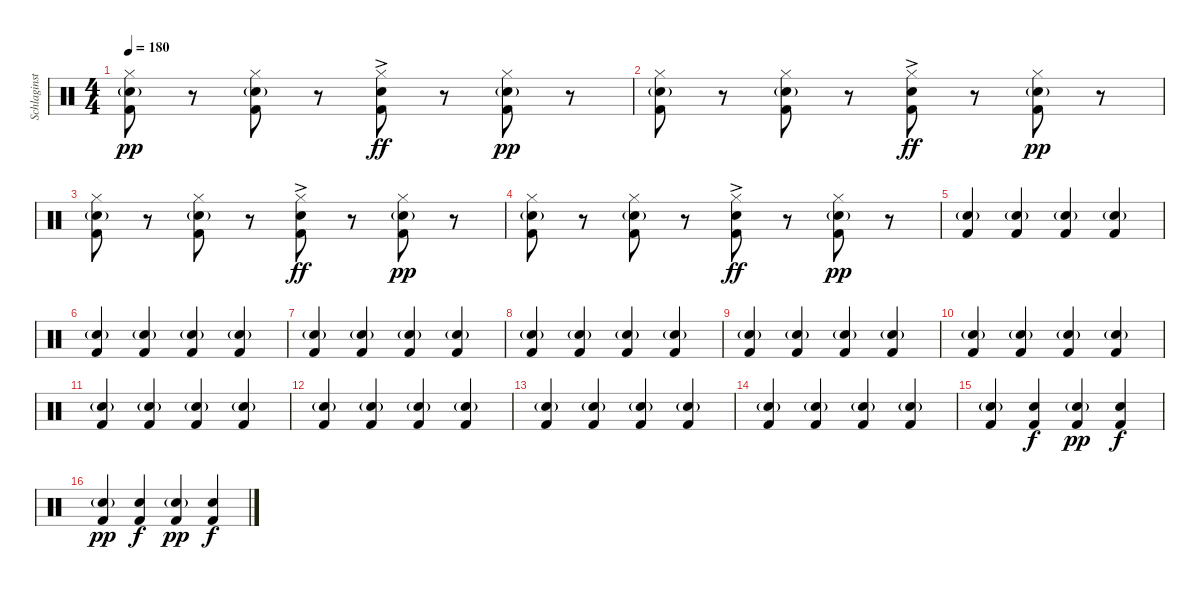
\track ("Schlaginstrumente - Auswahl" "Schlaginst") {instrument percussion}
\staff {score}
\articulation defaults
\ts (4 4)
\tempo 180
\clef neutral
\ks c
("Hi-Hat (closed)" "Electric Snare (hit)"{g} "Kick (hit) 2").8{dy pp} r.8 ("Hi-Hat (closed)" "Electric Snare (hit)"{g} "Kick (hit) 2").8 r.8 ("Hi-Hat (closed)" "Electric Snare (hit)"{ac} "Kick (hit) 2").8{dy ff} r.8 ("Hi-Hat (closed)" "Electric Snare (hit)"{g} "Kick (hit) 2").8{dy pp} r.8 |
("Hi-Hat (closed)" "Electric Snare (hit)"{g} "Kick (hit) 2").8 r.8 ("Hi-Hat (closed)" "Electric Snare (hit)"{g} "Kick (hit) 2").8 r.8 ("Hi-Hat (closed)" "Electric Snare (hit)"{ac} "Kick (hit) 2").8{dy ff} r.8 ("Hi-Hat (closed)" "Electric Snare (hit)"{g} "Kick (hit) 2").8{dy pp} r.8 |
("Hi-Hat (closed)" "Electric Snare (hit)"{g} "Kick (hit) 2").8 r.8 ("Hi-Hat (closed)" "Electric Snare (hit)"{g} "Kick (hit) 2").8 r.8 ("Hi-Hat (closed)" "Electric Snare (hit)"{ac} "Kick (hit) 2").8{dy ff} r.8 ("Hi-Hat (closed)" "Electric Snare (hit)"{g} "Kick (hit) 2").8{dy pp} r.8 |
("Hi-Hat (closed)" "Electric Snare (hit)"{g} "Kick (hit) 2").8 r.8 ("Hi-Hat (closed)" "Electric Snare (hit)"{g} "Kick (hit) 2").8 r.8 ("Hi-Hat (closed)" "Electric Snare (hit)"{ac} "Kick (hit) 2").8{dy ff} r.8 ("Hi-Hat (closed)" "Electric Snare (hit)"{g} "Kick (hit) 2").8{dy pp} r.8 |
("Electric Snare (hit)"{g} "Kick (hit) 2").4 ("Electric Snare (hit)"{g} "Kick (hit) 2").4 ("Electric Snare (hit)"{g} "Kick (hit) 2").4 ("Electric Snare (hit)"{g} "Kick (hit) 2").4 |
("Electric Snare (hit)"{g} "Kick (hit) 2").4 ("Electric Snare (hit)"{g} "Kick (hit) 2").4 ("Electric Snare (hit)"{g} "Kick (hit) 2").4 ("Electric Snare (hit)"{g} "Kick (hit) 2").4 |
("Electric Snare (hit)"{g} "Kick (hit) 2").4 ("Electric Snare (hit)"{g} "Kick (hit) 2").4 ("Electric Snare (hit)"{g} "Kick (hit) 2").4 ("Electric Snare (hit)"{g} "Kick (hit) 2").4 |
("Electric Snare (hit)"{g} "Kick (hit) 2").4 ("Electric Snare (hit)"{g} "Kick (hit) 2").4 ("Electric Snare (hit)"{g} "Kick (hit) 2").4 ("Electric Snare (hit)"{g} "Kick (hit) 2").4 |
("Electric Snare (hit)"{g} "Kick (hit) 2").4 ("Electric Snare (hit)"{g} "Kick (hit) 2").4 ("Electric Snare (hit)"{g} "Kick (hit) 2").4 ("Electric Snare (hit)"{g} "Kick (hit) 2").4 |
("Electric Snare (hit)"{g} "Kick (hit) 2").4 ("Electric Snare (hit)"{g} "Kick (hit) 2").4 ("Electric Snare (hit)"{g} "Kick (hit) 2").4 ("Electric Snare (hit)"{g} "Kick (hit) 2").4 |
("Electric Snare (hit)"{g} "Kick (hit) 2").4 ("Electric Snare (hit)"{g} "Kick (hit) 2").4 ("Electric Snare (hit)"{g} "Kick (hit) 2").4 ("Electric Snare (hit)"{g} "Kick (hit) 2").4 |
("Electric Snare (hit)"{g} "Kick (hit) 2").4 ("Electric Snare (hit)"{g} "Kick (hit) 2").4 ("Electric Snare (hit)"{g} "Kick (hit) 2").4 ("Electric Snare (hit)"{g} "Kick (hit) 2").4 |
("Electric Snare (hit)"{g} "Kick (hit) 2").4 ("Electric Snare (hit)"{g} "Kick (hit) 2").4 ("Electric Snare (hit)"{g} "Kick (hit) 2").4 ("Electric Snare (hit)"{g} "Kick (hit) 2").4 |
("Electric Snare (hit)"{g} "Kick (hit) 2").4 ("Electric Snare (hit)"{g} "Kick (hit) 2").4 ("Electric Snare (hit)"{g} "Kick (hit) 2").4 ("Electric Snare (hit)"{g} "Kick (hit) 2").4 |
("Electric Snare (hit)"{g} "Kick (hit) 2").4 ("Electric Snare (hit)" "Kick (hit) 2").4{dy f} ("Electric Snare (hit)"{g} "Kick (hit) 2").4{dy pp} ("Electric Snare (hit)" "Kick (hit) 2").4{dy f} |
("Electric Snare (hit)"{g} "Kick (hit) 2").4{dy pp} ("Electric Snare (hit)" "Kick (hit) 2").4{dy f} ("Electric Snare (hit)"{g} "Kick (hit) 2").4{dy pp} ("Electric Snare (hit)" "Kick (hit) 2").4{dy f}
